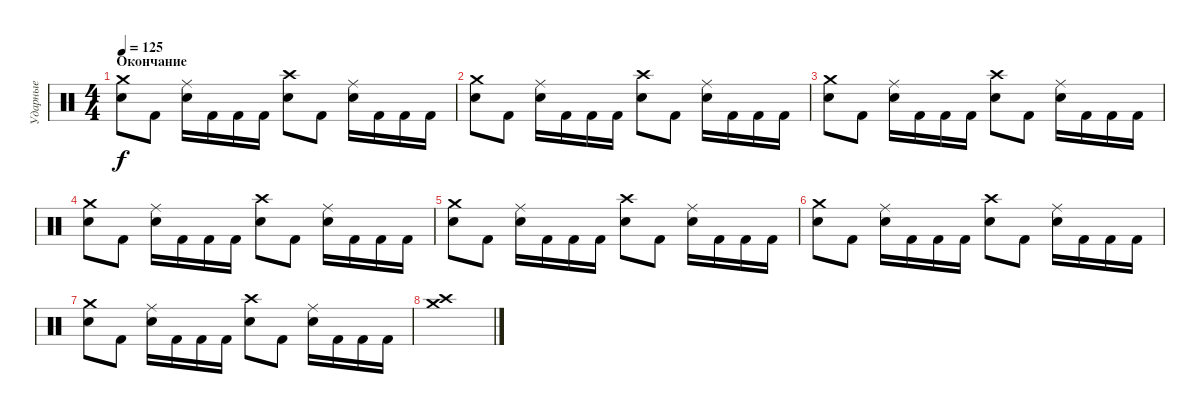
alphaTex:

\track ("Ударные" "Ударные") {instrument percussion}
\staff {score}
\articulation defaults
\ts (4 4)
\section ("" "Окончание")
\tempo 125
\clef neutral
\ks c
("Crash medium (hit)" "Snare (hit) 2").8{dy f} "Kick (hit) 2".8 ("Ride (middle)" "Snare (hit) 2").16 "Kick (hit) 2".16 "Kick (hit) 2".16 "Kick (hit) 2".16 ("Crash high (hit)" "Snare (hit) 2").8 "Kick (hit) 2".8 ("Ride (middle)" "Snare (hit) 2").16 "Kick (hit) 2".16 "Kick (hit) 2".16 "Kick (hit) 2".16 |
("Crash medium (hit)" "Snare (hit) 2").8 "Kick (hit) 2".8 ("Ride (middle)" "Snare (hit) 2").16 "Kick (hit) 2".16 "Kick (hit) 2".16 "Kick (hit) 2".16 ("Crash high (hit)" "Snare (hit) 2").8 "Kick (hit) 2".8 ("Ride (middle)" "Snare (hit) 2").16 "Kick (hit) 2".16 "Kick (hit) 2".16 "Kick (hit) 2".16 |
("Crash medium (hit)" "Snare (hit) 2").8 "Kick (hit) 2".8 ("Ride (middle)" "Snare (hit) 2").16 "Kick (hit) 2".16 "Kick (hit) 2".16 "Kick (hit) 2".16 ("Crash high (hit)" "Snare (hit) 2").8 "Kick (hit) 2".8 ("Ride (middle)" "Snare (hit) 2").16 "Kick (hit) 2".16 "Kick (hit) 2".16 "Kick (hit) 2".16 |
("Crash medium (hit)" "Snare (hit) 2").8 "Kick (hit) 2".8 ("Ride (middle)" "Snare (hit) 2").16 "Kick (hit) 2".16 "Kick (hit) 2".16 "Kick (hit) 2".16 ("Crash high (hit)" "Snare (hit) 2").8 "Kick (hit) 2".8 ("Ride (middle)" "Snare (hit) 2").16 "Kick (hit) 2".16 "Kick (hit) 2".16 "Kick (hit) 2".16 |
("Crash medium (hit)" "Snare (hit) 2").8 "Kick (hit) 2".8 ("Ride (middle)" "Snare (hit) 2").16 "Kick (hit) 2".16 "Kick (hit) 2".16 "Kick (hit) 2".16 ("Crash high (hit)" "Snare (hit) 2").8 "Kick (hit) 2".8 ("Ride (middle)" "Snare (hit) 2").16 "Kick (hit) 2".16 "Kick (hit) 2".16 "Kick (hit) 2".16 |
("Crash medium (hit)" "Snare (hit) 2").8 "Kick (hit) 2".8 ("Ride (middle)" "Snare (hit) 2").16 "Kick (hit) 2".16 "Kick (hit) 2".16 "Kick (hit) 2".16 ("Crash high (hit)" "Snare (hit) 2").8 "Kick (hit) 2".8 ("Ride (middle)" "Snare (hit) 2").16 "Kick (hit) 2".16 "Kick (hit) 2".16 "Kick (hit) 2".16 |
("Crash medium (hit)" "Snare (hit) 2").8 "Kick (hit) 2".8 ("Ride (middle)" "Snare (hit) 2").16 "Kick (hit) 2".16 "Kick (hit) 2".16 "Kick (hit) 2".16 ("Crash high (hit)" "Snare (hit) 2").8 "Kick (hit) 2".8 ("Ride (middle)" "Snare (hit) 2").16 "Kick (hit) 2".16 "Kick (hit) 2".16 "Kick (hit) 2".16 |
("Crash high (hit)" "Crash medium (hit)").1
